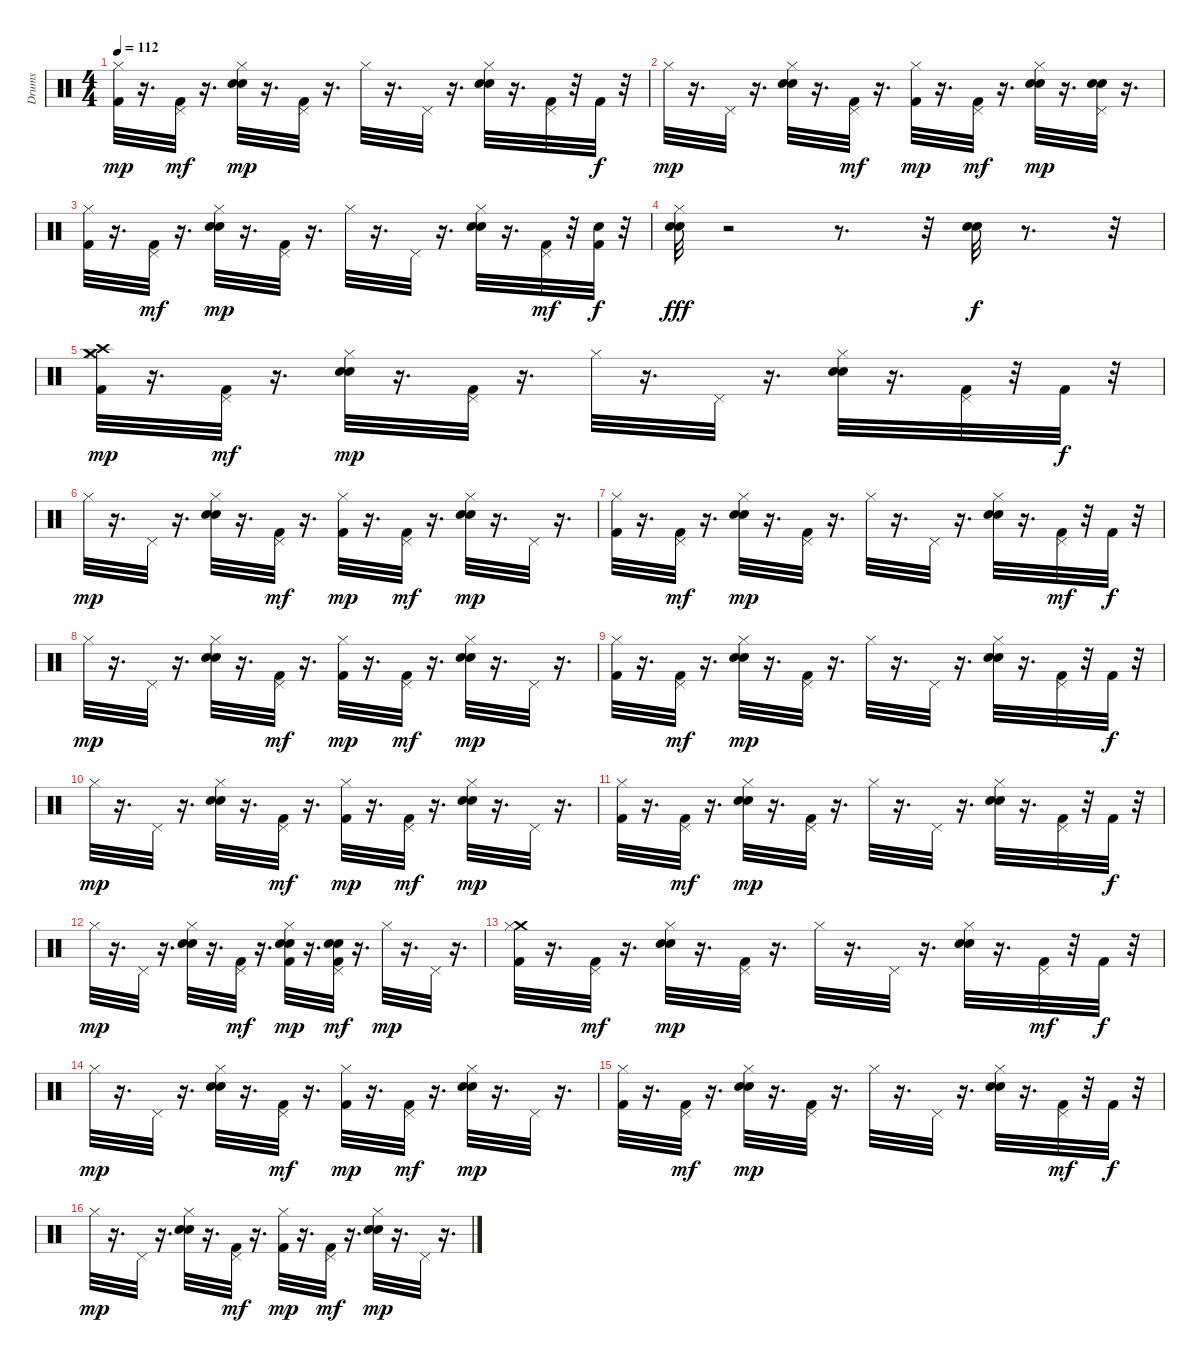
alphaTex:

\track ("Drums" "Drums") {instrument percussion}
\staff {score}
\articulation defaults
\ts (4 4)
\tempo 112
\clef neutral
\ks c
("Hi-Hat (closed)" "Kick (hit) 2").32{dy mp} r.16{d} ("Pedal Hi-Hat (hit)" "Kick (hit) 2").32{dy mf} r.16{d} ("Hi-Hat (closed)" "Electric Snare (hit)" "Hand Clap (hit)").32{dy mp} r.16{d} ("Pedal Hi-Hat (hit)" "Kick (hit) 2").32 r.16{d} "Hi-Hat (closed)".32 r.16{d} "Pedal Hi-Hat (hit)".32 r.16{d} ("Hi-Hat (closed)" "Electric Snare (hit)" "Hand Clap (hit)").32 r.16{d} ("Pedal Hi-Hat (hit)" "Kick (hit) 2").32 r.32 "Kick (hit) 2".32{dy f} r.32 |
"Hi-Hat (closed)".32{dy mp} r.16{d} "Pedal Hi-Hat (hit)".32 r.16{d} ("Hi-Hat (closed)" "Electric Snare (hit)" "Hand Clap (hit)").32 r.16{d} ("Pedal Hi-Hat (hit)" "Kick (hit) 2").32{dy mf} r.16{d} ("Hi-Hat (closed)" "Kick (hit) 2").32{dy mp} r.16{d} ("Pedal Hi-Hat (hit)" "Kick (hit) 2").32{dy mf} r.16{d} ("Hi-Hat (closed)" "Electric Snare (hit)" "Hand Clap (hit)").32{dy mp} r.16{d} ("Pedal Hi-Hat (hit)" "Hand Clap (hit)" "Electric Snare (hit)").32 r.16{d} |
("Hi-Hat (closed)" "Kick (hit) 2").32 r.16{d} ("Pedal Hi-Hat (hit)" "Kick (hit) 2").32{dy mf} r.16{d} ("Hi-Hat (closed)" "Electric Snare (hit)" "Hand Clap (hit)").32{dy mp} r.16{d} ("Pedal Hi-Hat (hit)" "Kick (hit) 2").32 r.16{d} "Hi-Hat (closed)".32 r.16{d} "Pedal Hi-Hat (hit)".32 r.16{d} ("Hi-Hat (closed)" "Electric Snare (hit)" "Hand Clap (hit)").32 r.16{d} ("Pedal Hi-Hat (hit)" "Kick (hit) 2").32{dy mf} r.32 ("Electric Snare (hit)" "Kick (hit) 2").32{dy f} r.32 |
("Hi-Hat (closed)" "Electric Snare (hit)" "Hand Clap (hit)").32{dy fff} r.2 r.8{d} r.32 ("Electric Snare (hit)" "Hand Clap (hit)").32{dy f} r.8{d} r.32 |
("Crash high (hit)" "Crash medium (hit)" "Hi-Hat (closed)" "Kick (hit) 2").32{dy mp} r.16{d} ("Pedal Hi-Hat (hit)" "Kick (hit) 2").32{dy mf} r.16{d} ("Hi-Hat (closed)" "Electric Snare (hit)" "Hand Clap (hit)").32{dy mp} r.16{d} ("Pedal Hi-Hat (hit)" "Kick (hit) 2").32 r.16{d} "Hi-Hat (closed)".32 r.16{d} "Pedal Hi-Hat (hit)".32 r.16{d} ("Hi-Hat (closed)" "Electric Snare (hit)" "Hand Clap (hit)").32 r.16{d} ("Pedal Hi-Hat (hit)" "Kick (hit) 2").32 r.32 "Kick (hit) 2".32{dy f} r.32 |
"Hi-Hat (closed)".32{dy mp} r.16{d} "Pedal Hi-Hat (hit)".32 r.16{d} ("Hi-Hat (closed)" "Electric Snare (hit)" "Hand Clap (hit)").32 r.16{d} ("Pedal Hi-Hat (hit)" "Kick (hit) 2").32{dy mf} r.16{d} ("Hi-Hat (closed)" "Kick (hit) 2").32{dy mp} r.16{d} ("Pedal Hi-Hat (hit)" "Kick (hit) 2").32{dy mf} r.16{d} ("Hi-Hat (closed)" "Electric Snare (hit)" "Hand Clap (hit)").32{dy mp} r.16{d} "Pedal Hi-Hat (hit)".32 r.16{d} |
("Hi-Hat (closed)" "Kick (hit) 2").32 r.16{d} ("Pedal Hi-Hat (hit)" "Kick (hit) 2").32{dy mf} r.16{d} ("Hi-Hat (closed)" "Electric Snare (hit)" "Hand Clap (hit)").32{dy mp} r.16{d} ("Pedal Hi-Hat (hit)" "Kick (hit) 2").32 r.16{d} "Hi-Hat (closed)".32 r.16{d} "Pedal Hi-Hat (hit)".32 r.16{d} ("Hi-Hat (closed)" "Electric Snare (hit)" "Hand Clap (hit)").32 r.16{d} ("Pedal Hi-Hat (hit)" "Kick (hit) 2").32{dy mf} r.32 "Kick (hit) 2".32{dy f} r.32 |
"Hi-Hat (closed)".32{dy mp} r.16{d} "Pedal Hi-Hat (hit)".32 r.16{d} ("Hi-Hat (closed)" "Electric Snare (hit)" "Hand Clap (hit)").32 r.16{d} ("Pedal Hi-Hat (hit)" "Kick (hit) 2").32{dy mf} r.16{d} ("Hi-Hat (closed)" "Kick (hit) 2").32{dy mp} r.16{d} ("Pedal Hi-Hat (hit)" "Kick (hit) 2").32{dy mf} r.16{d} ("Hi-Hat (closed)" "Electric Snare (hit)" "Hand Clap (hit)").32{dy mp} r.16{d} "Pedal Hi-Hat (hit)".32 r.16{d} |
("Hi-Hat (closed)" "Kick (hit) 2").32 r.16{d} ("Pedal Hi-Hat (hit)" "Kick (hit) 2").32{dy mf} r.16{d} ("Hi-Hat (closed)" "Electric Snare (hit)" "Hand Clap (hit)").32{dy mp} r.16{d} ("Pedal Hi-Hat (hit)" "Kick (hit) 2").32 r.16{d} "Hi-Hat (closed)".32 r.16{d} "Pedal Hi-Hat (hit)".32 r.16{d} ("Hi-Hat (closed)" "Electric Snare (hit)" "Hand Clap (hit)").32 r.16{d} ("Pedal Hi-Hat (hit)" "Kick (hit) 2").32 r.32 "Kick (hit) 2".32{dy f} r.32 |
"Hi-Hat (closed)".32{dy mp} r.16{d} "Pedal Hi-Hat (hit)".32 r.16{d} ("Hi-Hat (closed)" "Electric Snare (hit)" "Hand Clap (hit)").32 r.16{d} ("Pedal Hi-Hat (hit)" "Kick (hit) 2").32{dy mf} r.16{d} ("Hi-Hat (closed)" "Kick (hit) 2").32{dy mp} r.16{d} ("Pedal Hi-Hat (hit)" "Kick (hit) 2").32{dy mf} r.16{d} ("Hi-Hat (closed)" "Electric Snare (hit)" "Hand Clap (hit)").32{dy mp} r.16{d} "Pedal Hi-Hat (hit)".32 r.16{d} |
("Hi-Hat (closed)" "Kick (hit) 2").32 r.16{d} ("Pedal Hi-Hat (hit)" "Kick (hit) 2").32{dy mf} r.16{d} ("Hi-Hat (closed)" "Electric Snare (hit)" "Hand Clap (hit)").32{dy mp} r.16{d} ("Pedal Hi-Hat (hit)" "Kick (hit) 2").32 r.16{d} "Hi-Hat (closed)".32 r.16{d} "Pedal Hi-Hat (hit)".32 r.16{d} ("Hi-Hat (closed)" "Electric Snare (hit)" "Hand Clap (hit)").32 r.16{d} ("Pedal Hi-Hat (hit)" "Kick (hit) 2").32 r.32 "Kick (hit) 2".32{dy f} r.32 |
"Hi-Hat (closed)".32{dy mp} r.16{d} "Pedal Hi-Hat (hit)".32 r.16{d} ("Hi-Hat (closed)" "Electric Snare (hit)" "Hand Clap (hit)").32 r.16{d} ("Pedal Hi-Hat (hit)" "Kick (hit) 2").32{dy mf} r.16{d} ("Hi-Hat (closed)" "Kick (hit) 2" "Hand Clap (hit)" "Electric Snare (hit)").32{dy mp} r.16{d} ("Pedal Hi-Hat (hit)" "Kick (hit) 2" "Hand Clap (hit)" "Electric Snare (hit)").32{dy mf} r.16{d} "Hi-Hat (closed)".32{dy mp} r.16{d} "Pedal Hi-Hat (hit)".32 r.16{d} |
("Crash medium (hit)" "Hi-Hat (closed)" "Kick (hit) 2").32 r.16{d} ("Pedal Hi-Hat (hit)" "Kick (hit) 2").32{dy mf} r.16{d} ("Hi-Hat (closed)" "Electric Snare (hit)" "Hand Clap (hit)").32{dy mp} r.16{d} ("Pedal Hi-Hat (hit)" "Kick (hit) 2").32 r.16{d} "Hi-Hat (closed)".32 r.16{d} "Pedal Hi-Hat (hit)".32 r.16{d} ("Hi-Hat (closed)" "Electric Snare (hit)" "Hand Clap (hit)").32 r.16{d} ("Pedal Hi-Hat (hit)" "Kick (hit) 2").32{dy mf} r.32 "Kick (hit) 2".32{dy f} r.32 |
"Hi-Hat (closed)".32{dy mp} r.16{d} "Pedal Hi-Hat (hit)".32 r.16{d} ("Hi-Hat (closed)" "Electric Snare (hit)" "Hand Clap (hit)").32 r.16{d} ("Pedal Hi-Hat (hit)" "Kick (hit) 2").32{dy mf} r.16{d} ("Hi-Hat (closed)" "Kick (hit) 2").32{dy mp} r.16{d} ("Pedal Hi-Hat (hit)" "Kick (hit) 2").32{dy mf} r.16{d} ("Hi-Hat (closed)" "Electric Snare (hit)" "Hand Clap (hit)").32{dy mp} r.16{d} "Pedal Hi-Hat (hit)".32 r.16{d} |
("Hi-Hat (closed)" "Kick (hit) 2").32 r.16{d} ("Pedal Hi-Hat (hit)" "Kick (hit) 2").32{dy mf} r.16{d} ("Hi-Hat (closed)" "Electric Snare (hit)" "Hand Clap (hit)").32{dy mp} r.16{d} ("Pedal Hi-Hat (hit)" "Kick (hit) 2").32 r.16{d} "Hi-Hat (closed)".32 r.16{d} "Pedal Hi-Hat (hit)".32 r.16{d} ("Hi-Hat (closed)" "Electric Snare (hit)" "Hand Clap (hit)").32 r.16{d} ("Pedal Hi-Hat (hit)" "Kick (hit) 2").32{dy mf} r.32 "Kick (hit) 2".32{dy f} r.32 |
"Hi-Hat (closed)".32{dy mp} r.16{d} "Pedal Hi-Hat (hit)".32 r.16{d} ("Hi-Hat (closed)" "Electric Snare (hit)" "Hand Clap (hit)").32 r.16{d} ("Pedal Hi-Hat (hit)" "Kick (hit) 2").32{dy mf} r.16{d} ("Hi-Hat (closed)" "Kick (hit) 2").32{dy mp} r.16{d} ("Pedal Hi-Hat (hit)" "Kick (hit) 2").32{dy mf} r.16{d} ("Hi-Hat (closed)" "Electric Snare (hit)" "Hand Clap (hit)").32{dy mp} r.16{d} "Pedal Hi-Hat (hit)".32 r.16{d}
